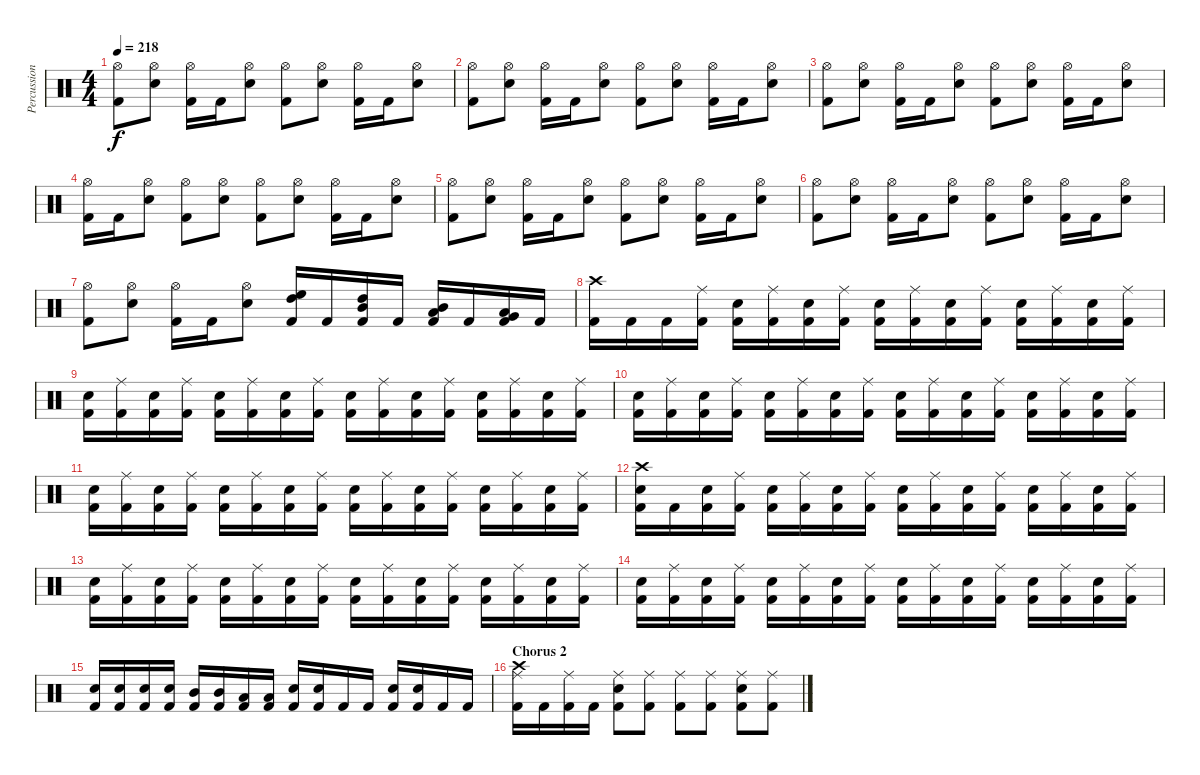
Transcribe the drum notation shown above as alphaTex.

\track ("Percussion" "Percussion") {instrument percussion}
\staff {score}
\articulation defaults
\ts (4 4)
\tempo 218
\clef neutral
\ks c
("Hi-Hat (open)" "Kick (hit) 2").8{dy f} ("Hi-Hat (open)" "Electric Snare (hit)").8 ("Hi-Hat (open)" "Kick (hit) 2").16 "Kick (hit) 2".16 ("Hi-Hat (open)" "Electric Snare (hit)").8 ("Hi-Hat (open)" "Kick (hit) 2").8 ("Hi-Hat (open)" "Electric Snare (hit)").8 ("Hi-Hat (open)" "Kick (hit) 2").16 "Kick (hit) 2".16 ("Hi-Hat (open)" "Electric Snare (hit)").8 |
("Hi-Hat (open)" "Kick (hit) 2").8 ("Hi-Hat (open)" "Electric Snare (hit)").8 ("Hi-Hat (open)" "Kick (hit) 2").16 "Kick (hit) 2".16 ("Hi-Hat (open)" "Electric Snare (hit)").8 ("Hi-Hat (open)" "Kick (hit) 2").8 ("Hi-Hat (open)" "Electric Snare (hit)").8 ("Hi-Hat (open)" "Kick (hit) 2").16 "Kick (hit) 2".16 ("Hi-Hat (open)" "Electric Snare (hit)").8 |
("Hi-Hat (open)" "Kick (hit) 2").8 ("Hi-Hat (open)" "Electric Snare (hit)").8 ("Hi-Hat (open)" "Kick (hit) 2").16 "Kick (hit) 2".16 ("Hi-Hat (open)" "Electric Snare (hit)").8 ("Hi-Hat (open)" "Kick (hit) 2").8 ("Hi-Hat (open)" "Electric Snare (hit)").8 ("Hi-Hat (open)" "Kick (hit) 2").16 "Kick (hit) 2".16 ("Hi-Hat (open)" "Electric Snare (hit)").8 |
("Hi-Hat (open)" "Kick (hit) 2").16 "Kick (hit) 2".16 ("Hi-Hat (open)" "Electric Snare (hit)").8 ("Hi-Hat (open)" "Kick (hit) 2").8 ("Hi-Hat (open)" "Electric Snare (hit)").8 ("Hi-Hat (open)" "Kick (hit) 2").8 ("Hi-Hat (open)" "Electric Snare (hit)").8 ("Hi-Hat (open)" "Kick (hit) 2").16 "Kick (hit) 2".16 ("Hi-Hat (open)" "Electric Snare (hit)").8 |
("Hi-Hat (open)" "Kick (hit) 2").8 ("Hi-Hat (open)" "Electric Snare (hit)").8 ("Hi-Hat (open)" "Kick (hit) 2").16 "Kick (hit) 2".16 ("Hi-Hat (open)" "Electric Snare (hit)").8 ("Hi-Hat (open)" "Kick (hit) 2").8 ("Hi-Hat (open)" "Electric Snare (hit)").8 ("Hi-Hat (open)" "Kick (hit) 2").16 "Kick (hit) 2".16 ("Hi-Hat (open)" "Electric Snare (hit)").8 |
("Hi-Hat (open)" "Kick (hit) 2").8 ("Hi-Hat (open)" "Electric Snare (hit)").8 ("Hi-Hat (open)" "Kick (hit) 2").16 "Kick (hit) 2".16 ("Hi-Hat (open)" "Electric Snare (hit)").8 ("Hi-Hat (open)" "Kick (hit) 2").8 ("Hi-Hat (open)" "Electric Snare (hit)").8 ("Hi-Hat (open)" "Kick (hit) 2").16 "Kick (hit) 2".16 ("Hi-Hat (open)" "Electric Snare (hit)").8 |
("Hi-Hat (open)" "Kick (hit) 2").8 ("Hi-Hat (open)" "Electric Snare (hit)").8 ("Hi-Hat (open)" "Kick (hit) 2").16 "Kick (hit) 2".16 ("Hi-Hat (open)" "Electric Snare (hit)").8 ("High Floor Tom (hit)" "High Tom (hit)" "Kick (hit) 2").16 "Kick (hit) 2".16 ("High Tom (hit)" "Mid Tom (hit)" "Kick (hit) 2").16 "Kick (hit) 2".16 ("Mid Tom (hit)" "Low Tom (hit)" "Kick (hit) 2").16 "Kick (hit) 2".16 ("Low Tom (hit)" "Very Low Tom (hit)" "Kick (hit) 2").16 "Kick (hit) 2".16 |
("Crash high (hit)" "Kick (hit) 2").16 "Kick (hit) 2".16 "Kick (hit) 2".16 ("Ride (middle)" "Kick (hit) 2").16 ("Electric Snare (hit)" "Kick (hit) 2").16 ("Ride (middle)" "Kick (hit) 2").16 ("Electric Snare (hit)" "Kick (hit) 2").16 ("Ride (middle)" "Kick (hit) 2").16 ("Electric Snare (hit)" "Kick (hit) 2").16 ("Ride (middle)" "Kick (hit) 2").16 ("Electric Snare (hit)" "Kick (hit) 2").16 ("Ride (middle)" "Kick (hit) 2").16 ("Electric Snare (hit)" "Kick (hit) 2").16 ("Ride (middle)" "Kick (hit) 2").16 ("Electric Snare (hit)" "Kick (hit) 2").16 ("Ride (middle)" "Kick (hit) 2").16 |
("Electric Snare (hit)" "Kick (hit) 2").16 ("Ride (middle)" "Kick (hit) 2").16 ("Electric Snare (hit)" "Kick (hit) 2").16 ("Ride (middle)" "Kick (hit) 2").16 ("Electric Snare (hit)" "Kick (hit) 2").16 ("Ride (middle)" "Kick (hit) 2").16 ("Electric Snare (hit)" "Kick (hit) 2").16 ("Ride (middle)" "Kick (hit) 2").16 ("Electric Snare (hit)" "Kick (hit) 2").16 ("Ride (middle)" "Kick (hit) 2").16 ("Electric Snare (hit)" "Kick (hit) 2").16 ("Ride (middle)" "Kick (hit) 2").16 ("Electric Snare (hit)" "Kick (hit) 2").16 ("Ride (middle)" "Kick (hit) 2").16 ("Electric Snare (hit)" "Kick (hit) 2").16 ("Ride (middle)" "Kick (hit) 2").16 |
("Electric Snare (hit)" "Kick (hit) 2").16 ("Ride (middle)" "Kick (hit) 2").16 ("Electric Snare (hit)" "Kick (hit) 2").16 ("Ride (middle)" "Kick (hit) 2").16 ("Electric Snare (hit)" "Kick (hit) 2").16 ("Ride (middle)" "Kick (hit) 2").16 ("Electric Snare (hit)" "Kick (hit) 2").16 ("Ride (middle)" "Kick (hit) 2").16 ("Electric Snare (hit)" "Kick (hit) 2").16 ("Ride (middle)" "Kick (hit) 2").16 ("Electric Snare (hit)" "Kick (hit) 2").16 ("Ride (middle)" "Kick (hit) 2").16 ("Electric Snare (hit)" "Kick (hit) 2").16 ("Ride (middle)" "Kick (hit) 2").16 ("Electric Snare (hit)" "Kick (hit) 2").16 ("Ride (middle)" "Kick (hit) 2").16 |
("Electric Snare (hit)" "Kick (hit) 2").16 ("Ride (middle)" "Kick (hit) 2").16 ("Electric Snare (hit)" "Kick (hit) 2").16 ("Ride (middle)" "Kick (hit) 2").16 ("Electric Snare (hit)" "Kick (hit) 2").16 ("Ride (middle)" "Kick (hit) 2").16 ("Electric Snare (hit)" "Kick (hit) 2").16 ("Ride (middle)" "Kick (hit) 2").16 ("Electric Snare (hit)" "Kick (hit) 2").16 ("Ride (middle)" "Kick (hit) 2").16 ("Electric Snare (hit)" "Kick (hit) 2").16 ("Ride (middle)" "Kick (hit) 2").16 ("Electric Snare (hit)" "Kick (hit) 2").16 ("Ride (middle)" "Kick (hit) 2").16 ("Electric Snare (hit)" "Kick (hit) 2").16 ("Ride (middle)" "Kick (hit) 2").16 |
("Crash high (hit)" "Electric Snare (hit)" "Kick (hit) 2").16 "Kick (hit) 2".16 ("Electric Snare (hit)" "Kick (hit) 2").16 ("Ride (middle)" "Kick (hit) 2").16 ("Electric Snare (hit)" "Kick (hit) 2").16 ("Ride (middle)" "Kick (hit) 2").16 ("Electric Snare (hit)" "Kick (hit) 2").16 ("Ride (middle)" "Kick (hit) 2").16 ("Electric Snare (hit)" "Kick (hit) 2").16 ("Ride (middle)" "Kick (hit) 2").16 ("Electric Snare (hit)" "Kick (hit) 2").16 ("Ride (middle)" "Kick (hit) 2").16 ("Electric Snare (hit)" "Kick (hit) 2").16 ("Ride (middle)" "Kick (hit) 2").16 ("Electric Snare (hit)" "Kick (hit) 2").16 ("Ride (middle)" "Kick (hit) 2").16 |
("Electric Snare (hit)" "Kick (hit) 2").16 ("Ride (middle)" "Kick (hit) 2").16 ("Electric Snare (hit)" "Kick (hit) 2").16 ("Ride (middle)" "Kick (hit) 2").16 ("Electric Snare (hit)" "Kick (hit) 2").16 ("Ride (middle)" "Kick (hit) 2").16 ("Electric Snare (hit)" "Kick (hit) 2").16 ("Ride (middle)" "Kick (hit) 2").16 ("Electric Snare (hit)" "Kick (hit) 2").16 ("Ride (middle)" "Kick (hit) 2").16 ("Electric Snare (hit)" "Kick (hit) 2").16 ("Ride (middle)" "Kick (hit) 2").16 ("Electric Snare (hit)" "Kick (hit) 2").16 ("Ride (middle)" "Kick (hit) 2").16 ("Electric Snare (hit)" "Kick (hit) 2").16 ("Ride (middle)" "Kick (hit) 2").16 |
("Electric Snare (hit)" "Kick (hit) 2").16 ("Ride (middle)" "Kick (hit) 2").16 ("Electric Snare (hit)" "Kick (hit) 2").16 ("Ride (middle)" "Kick (hit) 2").16 ("Electric Snare (hit)" "Kick (hit) 2").16 ("Ride (middle)" "Kick (hit) 2").16 ("Electric Snare (hit)" "Kick (hit) 2").16 ("Ride (middle)" "Kick (hit) 2").16 ("Electric Snare (hit)" "Kick (hit) 2").16 ("Ride (middle)" "Kick (hit) 2").16 ("Electric Snare (hit)" "Kick (hit) 2").16 ("Ride (middle)" "Kick (hit) 2").16 ("Electric Snare (hit)" "Kick (hit) 2").16 ("Ride (middle)" "Kick (hit) 2").16 ("Electric Snare (hit)" "Kick (hit) 2").16 ("Ride (middle)" "Kick (hit) 2").16 |
("Electric Snare (hit)" "Kick (hit) 2").16 ("Electric Snare (hit)" "Kick (hit) 2").16 ("Electric Snare (hit)" "Kick (hit) 2").16 ("Electric Snare (hit)" "Kick (hit) 2").16 ("Mid Tom (hit)" "Kick (hit) 2").16 ("Mid Tom (hit)" "Kick (hit) 2").16 ("Low Tom (hit)" "Kick (hit) 2").16 ("Low Tom (hit)" "Kick (hit) 2").16 ("Electric Snare (hit)" "Kick (hit) 2").16 ("Electric Snare (hit)" "Kick (hit) 2").16 "Kick (hit) 2".16 "Kick (hit) 2".16 ("Electric Snare (hit)" "Kick (hit) 2").16 ("Electric Snare (hit)" "Kick (hit) 2").16 "Kick (hit) 2".16 "Kick (hit) 2".16 |
\section ("" "Chorus 2")
("Crash high (hit)" "Ride (middle)" "Kick (hit) 2").16 "Kick (hit) 2".16 ("Ride (middle)" "Kick (hit) 2").16 "Kick (hit) 2".16 ("Ride (middle)" "Electric Snare (hit)" "Kick (hit) 2").8 ("Ride (middle)" "Kick (hit) 2").8 ("Ride (middle)" "Kick (hit) 2").8 ("Ride (middle)" "Kick (hit) 2").8 ("Ride (middle)" "Electric Snare (hit)" "Kick (hit) 2").8 ("Ride (middle)" "Kick (hit) 2").8
